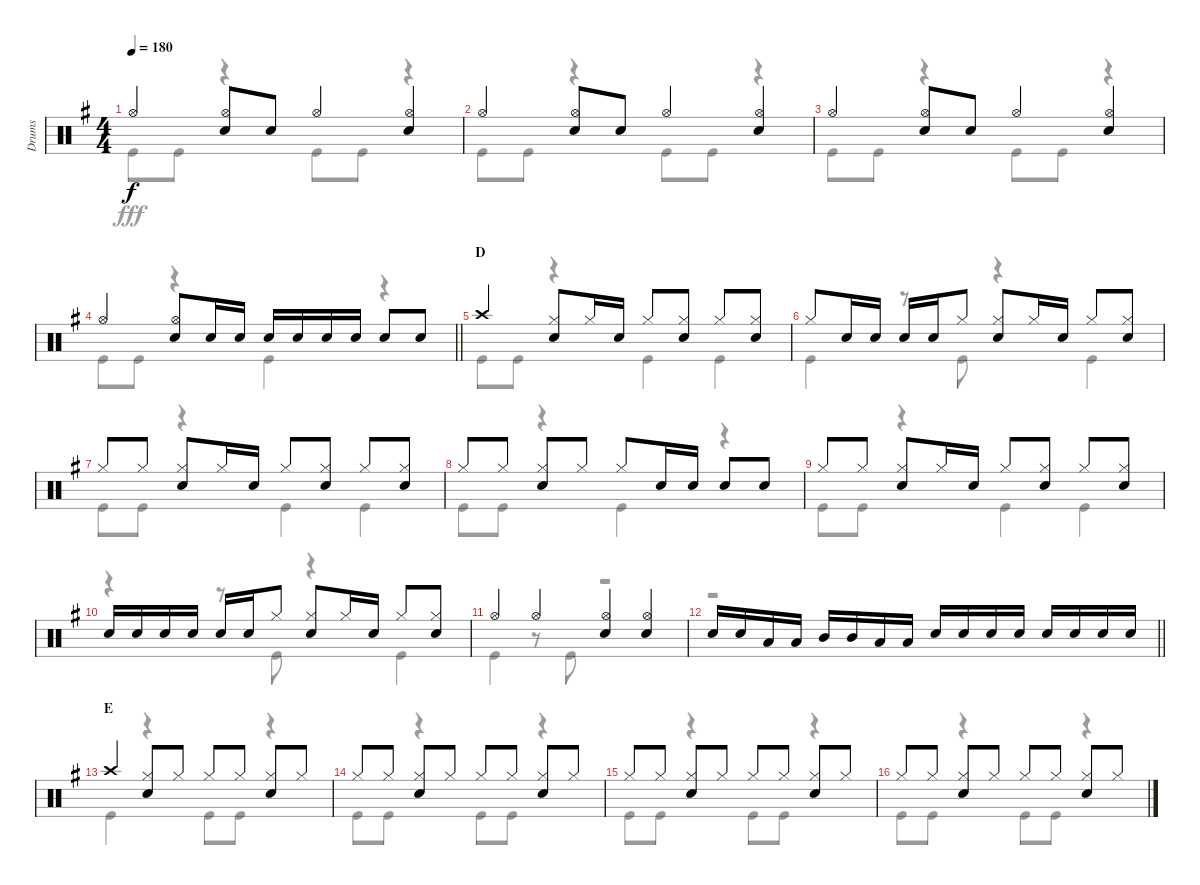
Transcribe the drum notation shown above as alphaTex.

\track ("Drums" "Drums") {instrument percussion}
\staff {score}
\articulation defaults
\voice
\ts (4 4)
\tempo 180
\clef neutral
\ks g "Hi-Hat (open)".4{dy f}
("Hi-Hat (open)" "Snare (hit) 2").8 "Snare (hit) 2".8 "Hi-Hat (open)".4 ("Hi-Hat (open)" "Snare (hit) 2").4 |
"Hi-Hat (open)".4 ("Hi-Hat (open)" "Snare (hit) 2").8 "Snare (hit) 2".8 "Hi-Hat (open)".4 ("Hi-Hat (open)" "Snare (hit) 2").4 |
"Hi-Hat (open)".4 ("Hi-Hat (open)" "Snare (hit) 2").8 "Snare (hit) 2".8 "Hi-Hat (open)".4 ("Hi-Hat (open)" "Snare (hit) 2").4 |
\barLineRight lightlight "Hi-Hat (open)".4
("Hi-Hat (open)" "Snare (hit) 2").8 "Snare (hit) 2".16 "Snare (hit) 2".16 "Snare (hit) 2".16 "Snare (hit) 2".16 "Snare (hit) 2".16 "Snare (hit) 2".16 "Snare (hit) 2".8 "Snare (hit) 2".8 |
\section ("" "D")
"Crash high (hit)".4 ("Hi-Hat (closed)" "Snare (hit) 2").8 "Hi-Hat (closed)".16 "Snare (hit) 2".16 "Hi-Hat (closed)".8 ("Hi-Hat (closed)" "Snare (hit) 2").8 "Hi-Hat (closed)".8 ("Hi-Hat (closed)" "Snare (hit) 2").8 |
"Hi-Hat (closed)".8 "Snare (hit) 2".16 "Snare (hit) 2".16 "Snare (hit) 2".16 "Snare (hit) 2".16 "Hi-Hat (closed)".8 ("Hi-Hat (closed)" "Snare (hit) 2").8 "Hi-Hat (closed)".16 "Snare (hit) 2".16 "Hi-Hat (closed)".8 ("Hi-Hat (closed)" "Snare (hit) 2").8 |
"Hi-Hat (closed)".8 "Hi-Hat (closed)".8 ("Hi-Hat (closed)" "Snare (hit) 2").8 "Hi-Hat (closed)".16 "Snare (hit) 2".16 "Hi-Hat (closed)".8 ("Hi-Hat (closed)" "Snare (hit) 2").8 "Hi-Hat (closed)".8 ("Hi-Hat (closed)" "Snare (hit) 2").8 |
"Hi-Hat (closed)".8 "Hi-Hat (closed)".8 ("Hi-Hat (closed)" "Snare (hit) 2").8 "Hi-Hat (closed)".8 "Hi-Hat (closed)".8 "Snare (hit) 2".16 "Snare (hit) 2".16 "Snare (hit) 2".8 "Snare (hit) 2".8 |
"Hi-Hat (closed)".8 "Hi-Hat (closed)".8 ("Hi-Hat (closed)" "Snare (hit) 2").8 "Hi-Hat (closed)".16 "Snare (hit) 2".16 "Hi-Hat (closed)".8 ("Hi-Hat (closed)" "Snare (hit) 2").8 "Hi-Hat (closed)".8 ("Hi-Hat (closed)" "Snare (hit) 2").8 |
"Snare (hit) 2".16 "Snare (hit) 2".16 "Snare (hit) 2".16 "Snare (hit) 2".16 "Snare (hit) 2".16 "Snare (hit) 2".16 "Hi-Hat (closed)".8 ("Hi-Hat (closed)" "Snare (hit) 2").8 "Hi-Hat (closed)".16 "Snare (hit) 2".16 "Hi-Hat (closed)".8 ("Hi-Hat (closed)" "Snare (hit) 2").8 |
"Hi-Hat (open)".4 "Hi-Hat (open)".4 ("Hi-Hat (open)" "Snare (hit) 2").4 ("Hi-Hat (open)" "Snare (hit) 2").4 |
\barLineRight lightlight "Snare (hit) 2".16 "Snare (hit) 2".16 "Low Tom (hit)".16 "Low Tom (hit)".16 "Mid Tom (hit)".16 "Mid Tom (hit)".16 "Low Tom (hit)".16 "Low Tom (hit)".16 "Snare (hit) 2".16 "Snare (hit) 2".16 "Snare (hit) 2".16 "Snare (hit) 2".16 "Snare (hit) 2".16 "Snare (hit) 2".16 "Snare (hit) 2".16 "Snare (hit) 2".16
|
\section ("" "E")
"Crash high (hit)".4 ("Hi-Hat (closed)" "Snare (hit) 2").8 "Hi-Hat (closed)".8 "Hi-Hat (closed)".8 "Hi-Hat (closed)".8 ("Hi-Hat (closed)" "Snare (hit) 2").8 "Hi-Hat (closed)".8 |
"Hi-Hat (closed)".8 "Hi-Hat (closed)".8 ("Hi-Hat (closed)" "Snare (hit) 2").8 "Hi-Hat (closed)".8 "Hi-Hat (closed)".8 "Hi-Hat (closed)".8 ("Hi-Hat (closed)" "Snare (hit) 2").8 "Hi-Hat (closed)".8 |
"Hi-Hat (closed)".8 "Hi-Hat (closed)".8 ("Hi-Hat (closed)" "Snare (hit) 2").8 "Hi-Hat (closed)".8 "Hi-Hat (closed)".8 "Hi-Hat (closed)".8 ("Hi-Hat (closed)" "Snare (hit) 2").8 "Hi-Hat (closed)".8 |
"Hi-Hat (closed)".8 "Hi-Hat (closed)".8 ("Hi-Hat (closed)" "Snare (hit) 2").8 "Hi-Hat (closed)".8 "Hi-Hat (closed)".8 "Hi-Hat (closed)".8 ("Hi-Hat (closed)" "Snare (hit) 2").8 "Hi-Hat (closed)".8
\voice
\clef neutral
\ottava regular
\simile none
\ks g "Kick (hit)".8{dy fff} "Kick (hit)".8
r.4 "Kick (hit)".8 "Kick (hit)".8 r.4 |
"Kick (hit)".8 "Kick (hit)".8 r.4 "Kick (hit)".8 "Kick (hit)".8 r.4 |
"Kick (hit)".8 "Kick (hit)".8 r.4 "Kick (hit)".8 "Kick (hit)".8 r.4 |
\barLineRight lightlight "Kick (hit)".8 "Kick (hit)".8
r.4 "Kick (hit)".4 r.4 |
"Kick (hit)".8 "Kick (hit)".8 r.4 "Kick (hit)".4 "Kick (hit)".4 |
"Kick (hit)".4 r.8 "Kick (hit)".8 r.4 "Kick (hit)".4 |
"Kick (hit)".8 "Kick (hit)".8 r.4 "Kick (hit)".4 "Kick (hit)".4 |
"Kick (hit)".8 "Kick (hit)".8 r.4 "Kick (hit)".4 r.4 |
"Kick (hit)".8 "Kick (hit)".8 r.4 "Kick (hit)".4 "Kick (hit)".4 |
r.4 r.8 "Kick (hit)".8 r.4 "Kick (hit)".4 |
"Kick (hit)".4 r.8 "Kick (hit)".8 r.2 |
\barLineRight lightlight
r.1 |
"Kick (hit)".4 r.4 "Kick (hit)".8 "Kick (hit)".8 r.4 |
"Kick (hit)".8 "Kick (hit)".8 r.4 "Kick (hit)".8 "Kick (hit)".8 r.4 |
"Kick (hit)".8 "Kick (hit)".8 r.4 "Kick (hit)".8 "Kick (hit)".8 r.4 |
"Kick (hit)".8 "Kick (hit)".8 r.4 "Kick (hit)".8 "Kick (hit)".8 r.4
